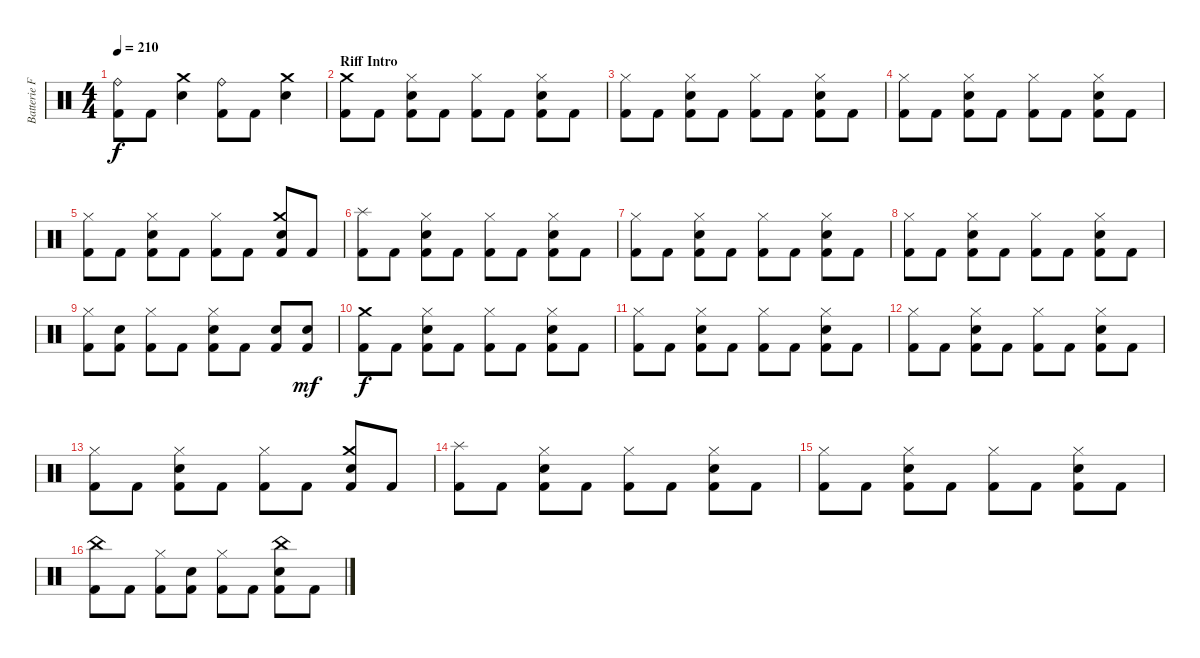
\track ("Batterie Franck" "Batterie F") {instrument percussion}
\staff {score}
\articulation defaults
\ts (4 4)
\tempo 210
\clef neutral
\ks c
("Ride (bell)" "Kick (hit) 2").8{dy f} "Kick (hit) 2".8 ("Crash medium (hit)" "Snare (hit) 2").4 ("Ride (bell)" "Kick (hit) 2").8 "Kick (hit) 2".8 ("Crash medium (hit)" "Snare (hit) 2").4 |
\section ("" "Riff Intro")
("Crash medium (hit)" "Kick (hit) 2").8 "Kick (hit) 2".8 ("Hi-Hat (closed)" "Snare (hit) 2" "Kick (hit) 2").8 "Kick (hit) 2".8 ("Hi-Hat (closed)" "Kick (hit) 2").8 "Kick (hit) 2".8 ("Hi-Hat (closed)" "Snare (hit) 2" "Kick (hit) 2").8 "Kick (hit) 2".8 |
("Hi-Hat (closed)" "Kick (hit) 2").8 "Kick (hit) 2".8 ("Hi-Hat (closed)" "Snare (hit) 2" "Kick (hit) 2").8 "Kick (hit) 2".8 ("Hi-Hat (closed)" "Kick (hit) 2").8 "Kick (hit) 2".8 ("Hi-Hat (closed)" "Snare (hit) 2" "Kick (hit) 2").8 "Kick (hit) 2".8 |
("Hi-Hat (closed)" "Kick (hit) 2").8 "Kick (hit) 2".8 ("Hi-Hat (closed)" "Snare (hit) 2" "Kick (hit) 2").8 "Kick (hit) 2".8 ("Hi-Hat (closed)" "Kick (hit) 2").8 "Kick (hit) 2".8 ("Hi-Hat (closed)" "Snare (hit) 2" "Kick (hit) 2").8 "Kick (hit) 2".8 |
("Hi-Hat (closed)" "Kick (hit) 2").8 "Kick (hit) 2".8 ("Hi-Hat (closed)" "Snare (hit) 2" "Kick (hit) 2").8 "Kick (hit) 2".8 ("Hi-Hat (closed)" "Kick (hit) 2").8 "Kick (hit) 2".8 ("Crash medium (hit)" "Snare (hit) 2" "Kick (hit) 2").8 "Kick (hit) 2".8 |
("Splash (hit)" "Kick (hit) 2").8 "Kick (hit) 2".8 ("Hi-Hat (closed)" "Snare (hit) 2" "Kick (hit) 2").8 "Kick (hit) 2".8 ("Hi-Hat (closed)" "Kick (hit) 2").8 "Kick (hit) 2".8 ("Hi-Hat (closed)" "Snare (hit) 2" "Kick (hit) 2").8 "Kick (hit) 2".8 |
("Hi-Hat (closed)" "Kick (hit) 2").8 "Kick (hit) 2".8 ("Hi-Hat (closed)" "Snare (hit) 2" "Kick (hit) 2").8 "Kick (hit) 2".8 ("Hi-Hat (closed)" "Kick (hit) 2").8 "Kick (hit) 2".8 ("Hi-Hat (closed)" "Snare (hit) 2" "Kick (hit) 2").8 "Kick (hit) 2".8 |
("Hi-Hat (closed)" "Kick (hit) 2").8 "Kick (hit) 2".8 ("Hi-Hat (closed)" "Snare (hit) 2" "Kick (hit) 2").8 "Kick (hit) 2".8 ("Hi-Hat (closed)" "Kick (hit) 2").8 "Kick (hit) 2".8 ("Hi-Hat (closed)" "Snare (hit) 2" "Kick (hit) 2").8 "Kick (hit) 2".8 |
("Hi-Hat (closed)" "Kick (hit) 2").8 ("Snare (hit) 2" "Kick (hit) 2").8 ("Hi-Hat (closed)" "Kick (hit) 2").8 "Kick (hit) 2".8 ("Hi-Hat (closed)" "Snare (hit) 2" "Kick (hit) 2").8 "Kick (hit) 2".8 ("Snare (hit) 2" "Kick (hit) 2").8 ("Snare (hit) 2" "Kick (hit) 2").8{dy mf} |
("Crash medium (hit)" "Kick (hit) 2").8{dy f} "Kick (hit) 2".8 ("Hi-Hat (closed)" "Snare (hit) 2" "Kick (hit) 2").8 "Kick (hit) 2".8 ("Hi-Hat (closed)" "Kick (hit) 2").8 "Kick (hit) 2".8 ("Hi-Hat (closed)" "Snare (hit) 2" "Kick (hit) 2").8 "Kick (hit) 2".8 |
("Hi-Hat (closed)" "Kick (hit) 2").8 "Kick (hit) 2".8 ("Hi-Hat (closed)" "Snare (hit) 2" "Kick (hit) 2").8 "Kick (hit) 2".8 ("Hi-Hat (closed)" "Kick (hit) 2").8 "Kick (hit) 2".8 ("Hi-Hat (closed)" "Snare (hit) 2" "Kick (hit) 2").8 "Kick (hit) 2".8 |
("Hi-Hat (closed)" "Kick (hit) 2").8 "Kick (hit) 2".8 ("Hi-Hat (closed)" "Snare (hit) 2" "Kick (hit) 2").8 "Kick (hit) 2".8 ("Hi-Hat (closed)" "Kick (hit) 2").8 "Kick (hit) 2".8 ("Hi-Hat (closed)" "Snare (hit) 2" "Kick (hit) 2").8 "Kick (hit) 2".8 |
("Hi-Hat (closed)" "Kick (hit) 2").8 "Kick (hit) 2".8 ("Hi-Hat (closed)" "Snare (hit) 2" "Kick (hit) 2").8 "Kick (hit) 2".8 ("Hi-Hat (closed)" "Kick (hit) 2").8 "Kick (hit) 2".8 ("Crash medium (hit)" "Snare (hit) 2" "Kick (hit) 2").8 "Kick (hit) 2".8 |
("Splash (hit)" "Kick (hit) 2").8 "Kick (hit) 2".8 ("Hi-Hat (closed)" "Snare (hit) 2" "Kick (hit) 2").8 "Kick (hit) 2".8 ("Hi-Hat (closed)" "Kick (hit) 2").8 "Kick (hit) 2".8 ("Hi-Hat (closed)" "Snare (hit) 2" "Kick (hit) 2").8 "Kick (hit) 2".8 |
("Hi-Hat (closed)" "Kick (hit) 2").8 "Kick (hit) 2".8 ("Hi-Hat (closed)" "Snare (hit) 2" "Kick (hit) 2").8 "Kick (hit) 2".8 ("Hi-Hat (closed)" "Kick (hit) 2").8 "Kick (hit) 2".8 ("Hi-Hat (closed)" "Snare (hit) 2" "Kick (hit) 2").8 "Kick (hit) 2".8 |
("China (hit)" "Kick (hit) 2").8 "Kick (hit) 2".8 ("Hi-Hat (closed)" "Kick (hit) 2").8 ("Snare (hit) 2" "Kick (hit) 2").8 ("Hi-Hat (closed)" "Kick (hit) 2").8 "Kick (hit) 2".8 ("China (hit)" "Snare (hit) 2" "Kick (hit) 2").8 "Kick (hit) 2".8
